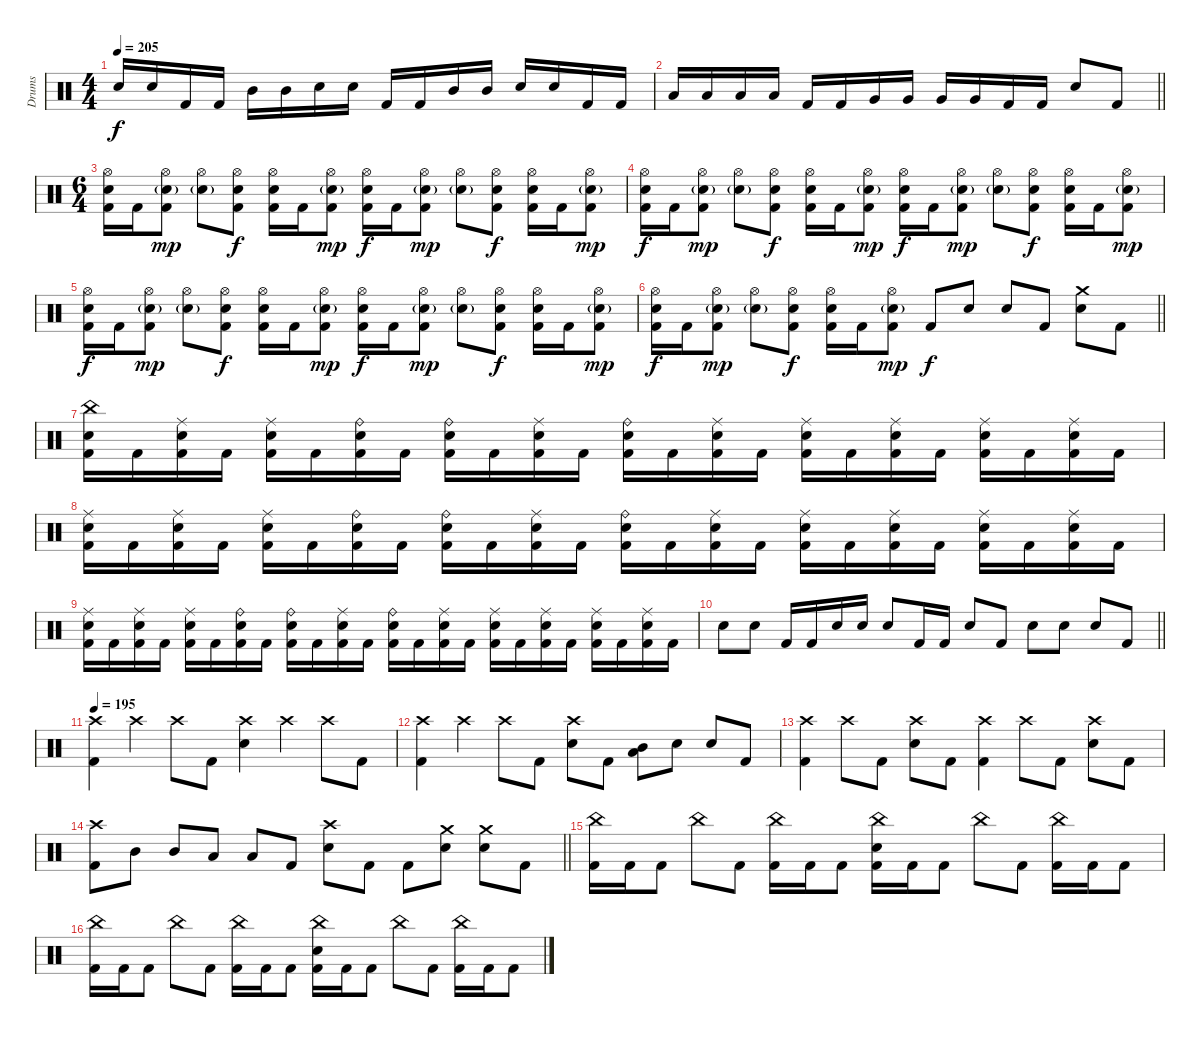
\track ("Drums" "Drums") {instrument percussion}
\staff {score}
\articulation defaults
\ts (4 4)
\tempo 205
\clef neutral
\ks c "Electric Snare (hit)".16{dy f} "Electric Snare (hit)".16 "Kick (hit) 2".16 "Kick (hit) 2".16 "Mid Tom (hit)".16 "Mid Tom (hit)".16 "Electric Snare (hit)".16 "Electric Snare (hit)".16 "Kick (hit) 2".16 "Kick (hit) 2".16 "Mid Tom (hit)".16 "Mid Tom (hit)".16 "Electric Snare (hit)".16 "Electric Snare (hit)".16 "Kick (hit) 2".16 "Kick (hit) 2".16
|
\barLineRight lightlight "Low Tom (hit)".16 "Low Tom (hit)".16 "Low Tom (hit)".16 "Low Tom (hit)".16 "Kick (hit) 2".16 "Kick (hit) 2".16 "Very Low Tom (hit)".16 "Very Low Tom (hit)".16 "Very Low Tom (hit)".16 "Very Low Tom (hit)".16 "Kick (hit) 2".16 "Kick (hit) 2".16 "Electric Snare (hit)".8 "Kick (hit) 2".8
|
\ts (6 4)
("Hi-Hat (open)" "Electric Snare (hit)" "Kick (hit) 2").16 "Kick (hit) 2".16 ("Hi-Hat (open)" "Electric Snare (hit)"{g} "Kick (hit) 2").8{dy mp} ("Hi-Hat (open)" "Electric Snare (hit)"{g}).8 ("Hi-Hat (open)" "Electric Snare (hit)" "Kick (hit) 2").8{dy f} ("Hi-Hat (open)" "Electric Snare (hit)" "Kick (hit) 2").16 "Kick (hit) 2".16 ("Hi-Hat (open)" "Electric Snare (hit)"{g} "Kick (hit) 2").8{dy mp} ("Hi-Hat (open)" "Electric Snare (hit)" "Kick (hit) 2").16{dy f} "Kick (hit) 2".16 ("Hi-Hat (open)" "Electric Snare (hit)"{g} "Kick (hit) 2").8{dy mp} ("Hi-Hat (open)" "Electric Snare (hit)"{g}).8 ("Hi-Hat (open)" "Electric Snare (hit)" "Kick (hit) 2").8{dy f} ("Hi-Hat (open)" "Electric Snare (hit)" "Kick (hit) 2").16 "Kick (hit) 2".16 ("Hi-Hat (open)" "Electric Snare (hit)"{g} "Kick (hit) 2").8{dy mp} |
("Hi-Hat (open)" "Electric Snare (hit)" "Kick (hit) 2").16{dy f} "Kick (hit) 2".16 ("Hi-Hat (open)" "Electric Snare (hit)"{g} "Kick (hit) 2").8{dy mp} ("Hi-Hat (open)" "Electric Snare (hit)"{g}).8 ("Hi-Hat (open)" "Electric Snare (hit)" "Kick (hit) 2").8{dy f} ("Hi-Hat (open)" "Electric Snare (hit)" "Kick (hit) 2").16 "Kick (hit) 2".16 ("Hi-Hat (open)" "Electric Snare (hit)"{g} "Kick (hit) 2").8{dy mp} ("Hi-Hat (open)" "Electric Snare (hit)" "Kick (hit) 2").16{dy f} "Kick (hit) 2".16 ("Hi-Hat (open)" "Electric Snare (hit)"{g} "Kick (hit) 2").8{dy mp} ("Hi-Hat (open)" "Electric Snare (hit)"{g}).8 ("Hi-Hat (open)" "Electric Snare (hit)" "Kick (hit) 2").8{dy f} ("Hi-Hat (open)" "Electric Snare (hit)" "Kick (hit) 2").16 "Kick (hit) 2".16 ("Hi-Hat (open)" "Electric Snare (hit)"{g} "Kick (hit) 2").8{dy mp} |
("Hi-Hat (open)" "Electric Snare (hit)" "Kick (hit) 2").16{dy f} "Kick (hit) 2".16 ("Hi-Hat (open)" "Electric Snare (hit)"{g} "Kick (hit) 2").8{dy mp} ("Hi-Hat (open)" "Electric Snare (hit)"{g}).8 ("Hi-Hat (open)" "Electric Snare (hit)" "Kick (hit) 2").8{dy f} ("Hi-Hat (open)" "Electric Snare (hit)" "Kick (hit) 2").16 "Kick (hit) 2".16 ("Hi-Hat (open)" "Electric Snare (hit)"{g} "Kick (hit) 2").8{dy mp} ("Hi-Hat (open)" "Electric Snare (hit)" "Kick (hit) 2").16{dy f} "Kick (hit) 2".16 ("Hi-Hat (open)" "Electric Snare (hit)"{g} "Kick (hit) 2").8{dy mp} ("Hi-Hat (open)" "Electric Snare (hit)"{g}).8 ("Hi-Hat (open)" "Electric Snare (hit)" "Kick (hit) 2").8{dy f} ("Hi-Hat (open)" "Electric Snare (hit)" "Kick (hit) 2").16 "Kick (hit) 2".16 ("Hi-Hat (open)" "Electric Snare (hit)"{g} "Kick (hit) 2").8{dy mp} |
\barLineRight lightlight
("Hi-Hat (open)" "Electric Snare (hit)" "Kick (hit) 2").16{dy f} "Kick (hit) 2".16 ("Hi-Hat (open)" "Electric Snare (hit)"{g} "Kick (hit) 2").8{dy mp} ("Hi-Hat (open)" "Electric Snare (hit)"{g}).8 ("Hi-Hat (open)" "Electric Snare (hit)" "Kick (hit) 2").8{dy f} ("Hi-Hat (open)" "Electric Snare (hit)" "Kick (hit) 2").16 "Kick (hit) 2".16 ("Hi-Hat (open)" "Electric Snare (hit)"{g} "Kick (hit) 2").8{dy mp} "Kick (hit) 2".8{dy f} "Electric Snare (hit)".8 "Electric Snare (hit)".8 "Kick (hit) 2".8 ("Crash medium (hit)" "Electric Snare (hit)").8 "Kick (hit) 2".8 |
("China (hit)" "Electric Snare (hit)" "Kick (hit) 2").16 "Kick (hit) 2".16 ("Ride (middle)" "Electric Snare (hit)" "Kick (hit) 2").16 "Kick (hit) 2".16 ("Ride (middle)" "Electric Snare (hit)" "Kick (hit) 2").16 "Kick (hit) 2".16 ("Ride (bell)" "Electric Snare (hit)" "Kick (hit) 2").16 "Kick (hit) 2".16 ("Ride (bell)" "Electric Snare (hit)" "Kick (hit) 2").16 "Kick (hit) 2".16 ("Ride (middle)" "Electric Snare (hit)" "Kick (hit) 2").16 "Kick (hit) 2".16 ("Ride (bell)" "Electric Snare (hit)" "Kick (hit) 2").16 "Kick (hit) 2".16 ("Ride (middle)" "Electric Snare (hit)" "Kick (hit) 2").16 "Kick (hit) 2".16 ("Ride (middle)" "Electric Snare (hit)" "Kick (hit) 2").16 "Kick (hit) 2".16 ("Ride (middle)" "Electric Snare (hit)" "Kick (hit) 2").16 "Kick (hit) 2".16 ("Ride (middle)" "Electric Snare (hit)" "Kick (hit) 2").16 "Kick (hit) 2".16 ("Ride (middle)" "Electric Snare (hit)" "Kick (hit) 2").16 "Kick (hit) 2".16 |
("Ride (middle)" "Electric Snare (hit)" "Kick (hit) 2").16 "Kick (hit) 2".16 ("Ride (middle)" "Electric Snare (hit)" "Kick (hit) 2").16 "Kick (hit) 2".16 ("Ride (middle)" "Electric Snare (hit)" "Kick (hit) 2").16 "Kick (hit) 2".16 ("Ride (bell)" "Electric Snare (hit)" "Kick (hit) 2").16 "Kick (hit) 2".16 ("Ride (bell)" "Electric Snare (hit)" "Kick (hit) 2").16 "Kick (hit) 2".16 ("Ride (middle)" "Electric Snare (hit)" "Kick (hit) 2").16 "Kick (hit) 2".16 ("Ride (bell)" "Electric Snare (hit)" "Kick (hit) 2").16 "Kick (hit) 2".16 ("Ride (middle)" "Electric Snare (hit)" "Kick (hit) 2").16 "Kick (hit) 2".16 ("Ride (middle)" "Electric Snare (hit)" "Kick (hit) 2").16 "Kick (hit) 2".16 ("Ride (middle)" "Electric Snare (hit)" "Kick (hit) 2").16 "Kick (hit) 2".16 ("Ride (middle)" "Electric Snare (hit)" "Kick (hit) 2").16 "Kick (hit) 2".16 ("Ride (middle)" "Electric Snare (hit)" "Kick (hit) 2").16 "Kick (hit) 2".16 |
("Ride (middle)" "Electric Snare (hit)" "Kick (hit) 2").16 "Kick (hit) 2".16 ("Ride (middle)" "Electric Snare (hit)" "Kick (hit) 2").16 "Kick (hit) 2".16 ("Ride (middle)" "Electric Snare (hit)" "Kick (hit) 2").16 "Kick (hit) 2".16 ("Ride (bell)" "Electric Snare (hit)" "Kick (hit) 2").16 "Kick (hit) 2".16 ("Ride (bell)" "Electric Snare (hit)" "Kick (hit) 2").16 "Kick (hit) 2".16 ("Ride (middle)" "Electric Snare (hit)" "Kick (hit) 2").16 "Kick (hit) 2".16 ("Ride (bell)" "Electric Snare (hit)" "Kick (hit) 2").16 "Kick (hit) 2".16 ("Ride (middle)" "Electric Snare (hit)" "Kick (hit) 2").16 "Kick (hit) 2".16 ("Ride (middle)" "Electric Snare (hit)" "Kick (hit) 2").16 "Kick (hit) 2".16 ("Ride (middle)" "Electric Snare (hit)" "Kick (hit) 2").16 "Kick (hit) 2".16 ("Ride (middle)" "Electric Snare (hit)" "Kick (hit) 2").16 "Kick (hit) 2".16 ("Ride (middle)" "Electric Snare (hit)" "Kick (hit) 2").16 "Kick (hit) 2".16 |
\barLineRight lightlight "Electric Snare (hit)".8 "Electric Snare (hit)".8 "Kick (hit) 2".16 "Kick (hit) 2".16 "Electric Snare (hit)".16 "Electric Snare (hit)".16 "Electric Snare (hit)".8 "Kick (hit) 2".16 "Kick (hit) 2".16 "Electric Snare (hit)".8 "Kick (hit) 2".8 "Electric Snare (hit)".8 "Electric Snare (hit)".8 "Electric Snare (hit)".8 "Kick (hit) 2".8
|
\tempo 195
("Crash high (hit)" "Kick (hit) 2").4 "Crash high (hit)".4 "Crash high (hit)".8 "Kick (hit) 2".8 ("Crash high (hit)" "Electric Snare (hit)").4 "Crash high (hit)".4 "Crash high (hit)".8 "Kick (hit) 2".8 |
("Crash high (hit)" "Kick (hit) 2").4 "Crash high (hit)".4 "Crash high (hit)".8 "Kick (hit) 2".8 ("Crash high (hit)" "Electric Snare (hit)").8 "Kick (hit) 2".8 ("Mid Tom (hit)" "Low Tom (hit)").8 "Electric Snare (hit)".8 "Electric Snare (hit)".8 "Kick (hit) 2".8 |
("Crash high (hit)" "Kick (hit) 2").4 "Crash high (hit)".8 "Kick (hit) 2".8 ("Crash high (hit)" "Electric Snare (hit)").8 "Kick (hit) 2".8 ("Crash high (hit)" "Kick (hit) 2").4 "Crash high (hit)".8 "Kick (hit) 2".8 ("Crash high (hit)" "Electric Snare (hit)").8 "Kick (hit) 2".8 |
\barLineRight lightlight
("Crash high (hit)" "Kick (hit) 2").8 "Mid Tom (hit)".8 "Mid Tom (hit)".8 "Low Tom (hit)".8 "Low Tom (hit)".8 "Kick (hit) 2".8 ("Crash high (hit)" "Electric Snare (hit)").8 "Kick (hit) 2".8 "Kick (hit) 2".8 ("Crash medium (hit)" "Electric Snare (hit)").8 ("Crash medium (hit)" "Electric Snare (hit)").8 "Kick (hit) 2".8 |
("China (hit)" "Kick (hit) 2").16 "Kick (hit) 2".16 "Kick (hit) 2".8 "China (hit)".8 "Kick (hit) 2".8 ("China (hit)" "Kick (hit) 2").16 "Kick (hit) 2".16 "Kick (hit) 2".8 ("China (hit)" "Electric Snare (hit)" "Kick (hit) 2").16 "Kick (hit) 2".16 "Kick (hit) 2".8 "China (hit)".8 "Kick (hit) 2".8 ("China (hit)" "Kick (hit) 2").16 "Kick (hit) 2".16 "Kick (hit) 2".8 |
("China (hit)" "Kick (hit) 2").16 "Kick (hit) 2".16 "Kick (hit) 2".8 "China (hit)".8 "Kick (hit) 2".8 ("China (hit)" "Kick (hit) 2").16 "Kick (hit) 2".16 "Kick (hit) 2".8 ("China (hit)" "Electric Snare (hit)" "Kick (hit) 2").16 "Kick (hit) 2".16 "Kick (hit) 2".8 "China (hit)".8 "Kick (hit) 2".8 ("China (hit)" "Kick (hit) 2").16 "Kick (hit) 2".16 "Kick (hit) 2".8
